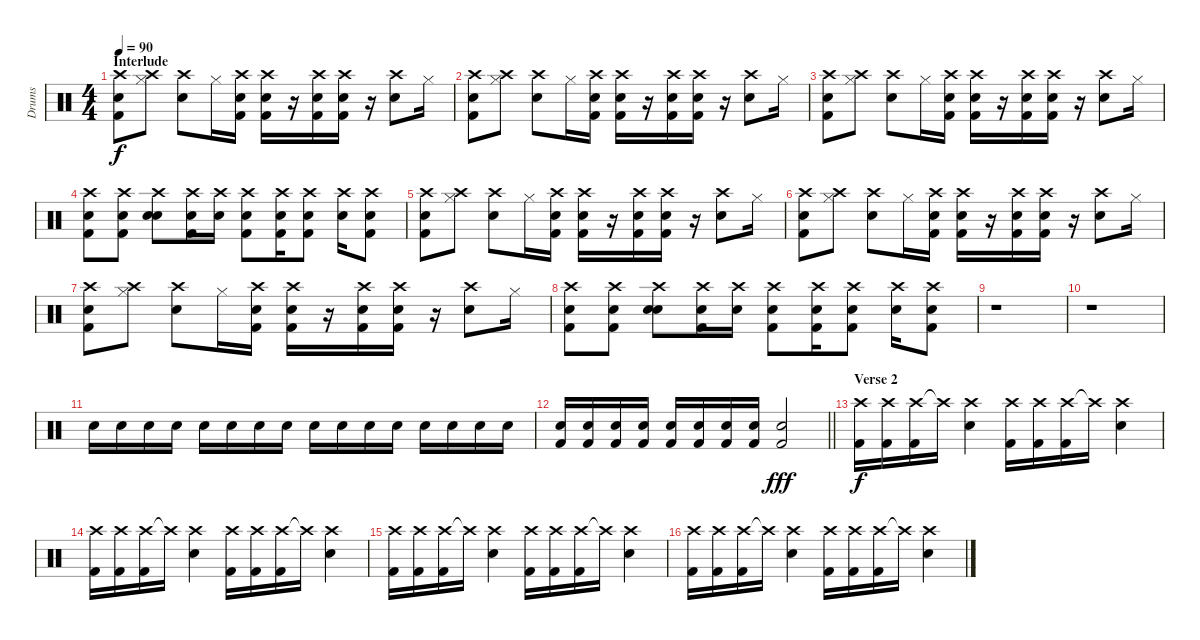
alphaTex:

\track ("Drums" "Drums") {instrument percussion}
\staff {score}
\articulation defaults
\ts (4 4)
\section ("" "Interlude")
\tempo 90
\clef neutral
\ks c
("Crash high (hit)" "Kick (hit) 2" "Snare (hit) 2").8{dy f} ("Crash high (hit)" "Hi-Hat (closed)").8 ("Crash high (hit)" "Electric Snare (hit)").8 "Hi-Hat (closed)".16 ("Crash high (hit)" "Kick (hit) 2" "Snare (hit) 2").16 ("Crash high (hit)" "Kick (hit) 2" "Snare (hit) 2").16 r.16 ("Crash high (hit)" "Kick (hit) 2" "Snare (hit) 2").16 ("Crash high (hit)" "Kick (hit) 2" "Snare (hit) 2").16 r.16 ("Crash high (hit)" "Electric Snare (hit)").8 "Hi-Hat (closed)".16 |
("Crash high (hit)" "Kick (hit) 2" "Snare (hit) 2").8 ("Crash high (hit)" "Hi-Hat (closed)").8 ("Crash high (hit)" "Electric Snare (hit)").8 "Hi-Hat (closed)".16 ("Crash high (hit)" "Kick (hit) 2" "Snare (hit) 2").16 ("Crash high (hit)" "Kick (hit) 2" "Snare (hit) 2").16 r.16 ("Crash high (hit)" "Kick (hit) 2" "Snare (hit) 2").16 ("Crash high (hit)" "Kick (hit) 2" "Snare (hit) 2").16 r.16 ("Crash high (hit)" "Electric Snare (hit)").8 "Hi-Hat (closed)".16 |
("Crash high (hit)" "Kick (hit) 2" "Snare (hit) 2").8 ("Crash high (hit)" "Hi-Hat (closed)").8 ("Crash high (hit)" "Electric Snare (hit)").8 "Hi-Hat (closed)".16 ("Crash high (hit)" "Kick (hit) 2" "Snare (hit) 2").16 ("Crash high (hit)" "Kick (hit) 2" "Snare (hit) 2").16 r.16 ("Crash high (hit)" "Kick (hit) 2" "Snare (hit) 2").16 ("Crash high (hit)" "Kick (hit) 2" "Snare (hit) 2").16 r.16 ("Crash high (hit)" "Electric Snare (hit)").8 "Hi-Hat (closed)".16 |
("Crash high (hit)" "Kick (hit) 2" "Snare (hit) 2").8 ("Crash high (hit)" "Kick (hit) 2" "Snare (hit) 2").8 ("Crash high (hit)" "Electric Snare (hit)" "Electric Snare (hit)").8 ("Crash high (hit)" "Kick (hit) 2" "Snare (hit) 2").16 ("Crash high (hit)" "Electric Snare (hit)").16 ("Crash high (hit)" "Kick (hit) 2" "Snare (hit) 2").8 ("Crash high (hit)" "Kick (hit) 2" "Snare (hit) 2").16 ("Crash high (hit)" "Kick (hit) 2" "Snare (hit) 2").8 ("Crash high (hit)" "Electric Snare (hit)").16 ("Crash high (hit)" "Kick (hit) 2" "Snare (hit) 2").8 |
("Crash high (hit)" "Kick (hit) 2" "Snare (hit) 2").8 ("Crash high (hit)" "Hi-Hat (closed)").8 ("Crash high (hit)" "Electric Snare (hit)").8 "Hi-Hat (closed)".16 ("Crash high (hit)" "Kick (hit) 2" "Snare (hit) 2").16 ("Crash high (hit)" "Kick (hit) 2" "Snare (hit) 2").16 r.16 ("Crash high (hit)" "Kick (hit) 2" "Snare (hit) 2").16 ("Crash high (hit)" "Kick (hit) 2" "Snare (hit) 2").16 r.16 ("Crash high (hit)" "Electric Snare (hit)").8 "Hi-Hat (closed)".16 |
("Crash high (hit)" "Kick (hit) 2" "Snare (hit) 2").8 ("Crash high (hit)" "Hi-Hat (closed)").8 ("Crash high (hit)" "Electric Snare (hit)").8 "Hi-Hat (closed)".16 ("Crash high (hit)" "Kick (hit) 2" "Snare (hit) 2").16 ("Crash high (hit)" "Kick (hit) 2" "Snare (hit) 2").16 r.16 ("Crash high (hit)" "Kick (hit) 2" "Snare (hit) 2").16 ("Crash high (hit)" "Kick (hit) 2" "Snare (hit) 2").16 r.16 ("Crash high (hit)" "Electric Snare (hit)").8 "Hi-Hat (closed)".16 |
("Crash high (hit)" "Kick (hit) 2" "Snare (hit) 2").8 ("Crash high (hit)" "Hi-Hat (closed)").8 ("Crash high (hit)" "Electric Snare (hit)").8 "Hi-Hat (closed)".16 ("Crash high (hit)" "Kick (hit) 2" "Snare (hit) 2").16 ("Crash high (hit)" "Kick (hit) 2" "Snare (hit) 2").16 r.16 ("Crash high (hit)" "Kick (hit) 2" "Snare (hit) 2").16 ("Crash high (hit)" "Kick (hit) 2" "Snare (hit) 2").16 r.16 ("Crash high (hit)" "Electric Snare (hit)").8 "Hi-Hat (closed)".16 |
("Crash high (hit)" "Kick (hit) 2" "Snare (hit) 2").8 ("Crash high (hit)" "Kick (hit) 2" "Snare (hit) 2").8 ("Crash high (hit)" "Electric Snare (hit)" "Electric Snare (hit)").8 ("Crash high (hit)" "Kick (hit) 2" "Snare (hit) 2").16 ("Crash high (hit)" "Electric Snare (hit)").16 ("Crash high (hit)" "Kick (hit) 2" "Snare (hit) 2").8 ("Crash high (hit)" "Kick (hit) 2" "Snare (hit) 2").16 ("Crash high (hit)" "Kick (hit) 2" "Snare (hit) 2").8 ("Crash high (hit)" "Electric Snare (hit)").16 ("Crash high (hit)" "Kick (hit) 2" "Snare (hit) 2").8 |
r.1 |
r.1 |
"Snare (hit) 2".16{volume 0} "Snare (hit) 2".16{volume 13} "Snare (hit) 2".16 "Snare (hit) 2".16 "Snare (hit) 2".16 "Snare (hit) 2".16 "Snare (hit) 2".16 "Snare (hit) 2".16 "Snare (hit) 2".16 "Snare (hit) 2".16 "Snare (hit) 2".16 "Snare (hit) 2".16 "Snare (hit) 2".16 "Snare (hit) 2".16 "Snare (hit) 2".16 "Snare (hit) 2".16 |
\barLineRight lightlight
("Kick (hit) 2" "Snare (hit) 2").16 ("Kick (hit) 2" "Snare (hit) 2").16 ("Kick (hit) 2" "Snare (hit) 2").16 ("Kick (hit) 2" "Snare (hit) 2").16 ("Kick (hit) 2" "Snare (hit) 2").16 ("Kick (hit) 2" "Snare (hit) 2").16 ("Kick (hit) 2" "Snare (hit) 2").16 ("Kick (hit) 2" "Snare (hit) 2").16 ("Kick (hit) 2" "Snare (hit) 2").2{dy fff} |
\section ("" "Verse 2")
("Crash high (hit)" "Kick (hit) 2").16{dy f} ("Crash high (hit)" "Kick (hit) 2").16 ("Crash high (hit)" "Kick (hit) 2").16 "Crash high (hit)"{t}.16 ("Crash high (hit)" "Electric Snare (hit)").4 ("Crash high (hit)" "Kick (hit) 2").16 ("Crash high (hit)" "Kick (hit) 2").16 ("Crash high (hit)" "Kick (hit) 2").16 "Crash high (hit)"{t}.16 ("Crash high (hit)" "Electric Snare (hit)").4 |
("Crash high (hit)" "Kick (hit) 2").16 ("Crash high (hit)" "Kick (hit) 2").16 ("Crash high (hit)" "Kick (hit) 2").16 "Crash high (hit)"{t}.16 ("Crash high (hit)" "Electric Snare (hit)").4 ("Crash high (hit)" "Kick (hit) 2").16 ("Crash high (hit)" "Kick (hit) 2").16 ("Crash high (hit)" "Kick (hit) 2").16 "Crash high (hit)"{t}.16 ("Crash high (hit)" "Electric Snare (hit)").4 |
("Crash high (hit)" "Kick (hit) 2").16 ("Crash high (hit)" "Kick (hit) 2").16 ("Crash high (hit)" "Kick (hit) 2").16 "Crash high (hit)"{t}.16 ("Crash high (hit)" "Electric Snare (hit)").4 ("Crash high (hit)" "Kick (hit) 2").16 ("Crash high (hit)" "Kick (hit) 2").16 ("Crash high (hit)" "Kick (hit) 2").16 "Crash high (hit)"{t}.16 ("Crash high (hit)" "Electric Snare (hit)").4 |
("Crash high (hit)" "Kick (hit) 2").16 ("Crash high (hit)" "Kick (hit) 2").16 ("Crash high (hit)" "Kick (hit) 2").16 "Crash high (hit)"{t}.16 ("Crash high (hit)" "Electric Snare (hit)").4 ("Crash high (hit)" "Kick (hit) 2").16 ("Crash high (hit)" "Kick (hit) 2").16 ("Crash high (hit)" "Kick (hit) 2").16 "Crash high (hit)"{t}.16 ("Crash high (hit)" "Electric Snare (hit)").4
